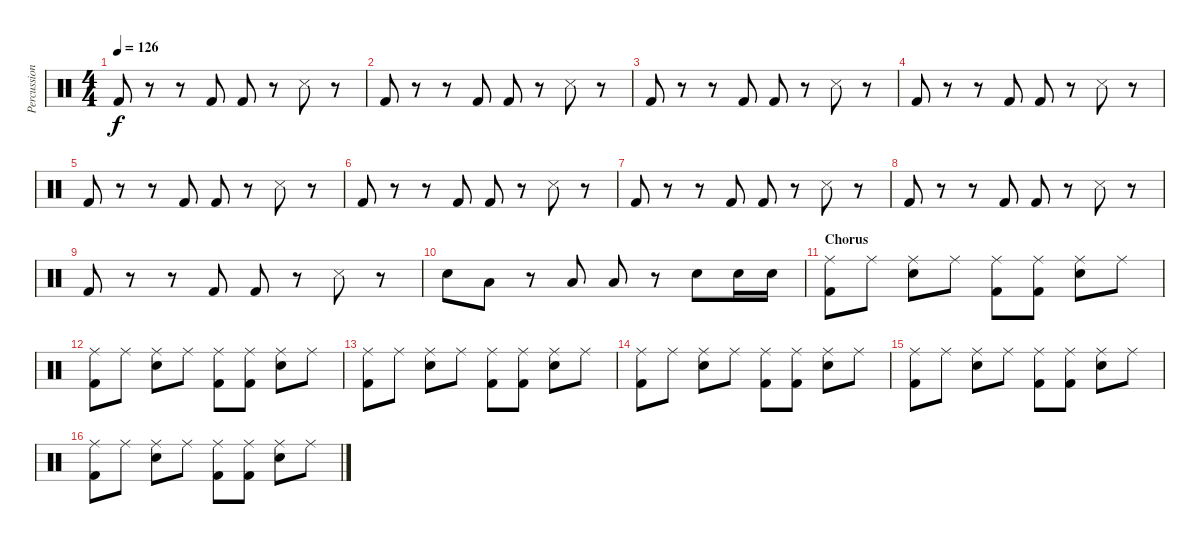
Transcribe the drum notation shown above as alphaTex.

\track ("Percussions" "Percussion") {instrument percussion}
\staff {score}
\articulation defaults
\ts (4 4)
\tempo 126
\clef neutral
\ks c "Kick (hit) 2".8{dy f}
r.8 r.8 "Kick (hit) 2".8 "Kick (hit) 2".8 r.8 "Snare (side stick) 3".8 r.8 |
"Kick (hit) 2".8 r.8 r.8 "Kick (hit) 2".8 "Kick (hit) 2".8 r.8 "Snare (side stick) 3".8 r.8 |
"Kick (hit) 2".8 r.8 r.8 "Kick (hit) 2".8 "Kick (hit) 2".8 r.8 "Snare (side stick) 3".8 r.8 |
"Kick (hit) 2".8 r.8 r.8 "Kick (hit) 2".8 "Kick (hit) 2".8 r.8 "Snare (side stick) 3".8 r.8 |
"Kick (hit) 2".8 r.8 r.8 "Kick (hit) 2".8 "Kick (hit) 2".8 r.8 "Snare (side stick) 3".8 r.8 |
"Kick (hit) 2".8 r.8 r.8 "Kick (hit) 2".8 "Kick (hit) 2".8 r.8 "Snare (side stick) 3".8 r.8 |
"Kick (hit) 2".8 r.8 r.8 "Kick (hit) 2".8 "Kick (hit) 2".8 r.8 "Snare (side stick) 3".8 r.8 |
"Kick (hit) 2".8 r.8 r.8 "Kick (hit) 2".8 "Kick (hit) 2".8 r.8 "Snare (side stick) 3".8 r.8 |
"Kick (hit) 2".8 r.8 r.8 "Kick (hit) 2".8 "Kick (hit) 2".8 r.8 "Snare (side stick) 3".8 r.8 |
"Snare (hit) 2".8 "Low Tom (hit)".8 r.8 "Low Tom (hit)".8 "Low Floor Tom (hit)".8 r.8 "Snare (hit) 2".8 "Snare (hit) 2".16 "Snare (hit) 2".16 |
\section ("" "Chorus")
("Ride (middle)" "Kick (hit) 2").8 "Ride (middle)".8 ("Ride (middle)" "Snare (hit) 2").8 "Ride (middle)".8 ("Ride (middle)" "Kick (hit) 2").8 ("Ride (middle)" "Kick (hit) 2").8 ("Ride (middle)" "Snare (hit) 2").8 "Ride (middle)".8 |
("Ride (middle)" "Kick (hit) 2").8 "Ride (middle)".8 ("Ride (middle)" "Snare (hit) 2").8 "Ride (middle)".8 ("Ride (middle)" "Kick (hit) 2").8 ("Ride (middle)" "Kick (hit) 2").8 ("Ride (middle)" "Snare (hit) 2").8 "Ride (middle)".8 |
("Ride (middle)" "Kick (hit) 2").8 "Ride (middle)".8 ("Ride (middle)" "Snare (hit) 2").8 "Ride (middle)".8 ("Ride (middle)" "Kick (hit) 2").8 ("Ride (middle)" "Kick (hit) 2").8 ("Ride (middle)" "Snare (hit) 2").8 "Ride (middle)".8 |
("Ride (middle)" "Kick (hit) 2").8 "Ride (middle)".8 ("Ride (middle)" "Snare (hit) 2").8 "Ride (middle)".8 ("Ride (middle)" "Kick (hit) 2").8 ("Ride (middle)" "Kick (hit) 2").8 ("Ride (middle)" "Snare (hit) 2").8 "Ride (middle)".8 |
("Ride (middle)" "Kick (hit) 2").8 "Ride (middle)".8 ("Ride (middle)" "Snare (hit) 2").8 "Ride (middle)".8 ("Ride (middle)" "Kick (hit) 2").8 ("Ride (middle)" "Kick (hit) 2").8 ("Ride (middle)" "Snare (hit) 2").8 "Ride (middle)".8 |
("Ride (middle)" "Kick (hit) 2").8 "Ride (middle)".8 ("Ride (middle)" "Snare (hit) 2").8 "Ride (middle)".8 ("Ride (middle)" "Kick (hit) 2").8 ("Ride (middle)" "Kick (hit) 2").8 ("Ride (middle)" "Snare (hit) 2").8 "Ride (middle)".8
